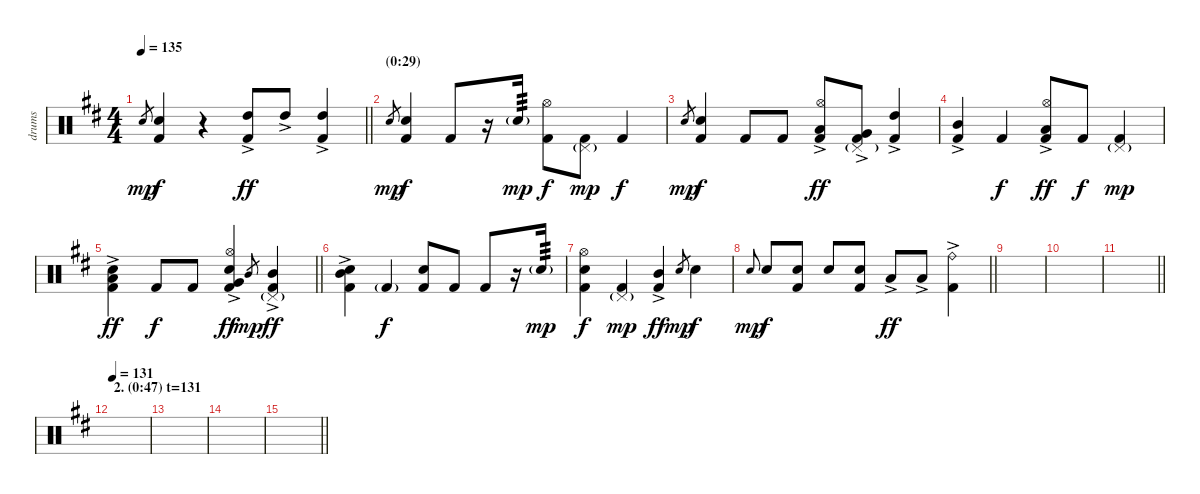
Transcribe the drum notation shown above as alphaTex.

\track ("drums" "drums") {instrument percussion}
\staff {score}
\articulation defaults
\ts (4 4)
\tempo 135
\clef neutral
\barLineRight lightlight
\ks d "Electric Snare (hit)".8{gr dy mp}
("Electric Snare (hit)" "Kick (hit) 2").4{dy f} r.4 ("High Tom (hit)"{ac} "Kick (hit) 2").8{dy ff} "High Tom (hit)"{ac}.8 ("High Tom (hit)"{ac} "Kick (hit) 2").4 |
\section ("" "(0:29)")
"Electric Snare (hit)".8{gr dy mp} ("Electric Snare (hit)" "Kick (hit) 2").4{dy f} "Kick (hit) 2".8 r.16 "Electric Snare (hit)"{g}.16{tp 3 dy mp} ("Hi-Hat (open)" "Kick (hit) 2").8{dy f} ("Pedal Hi-Hat (hit)"{g} "Kick (hit) 2").8{dy mp} "Kick (hit) 2".4{dy f} |
"Electric Snare (hit)".8{gr dy mp} ("Electric Snare (hit)" "Kick (hit) 2").4{dy f} "Kick (hit) 2".8 "Kick (hit) 2".8 ("Hi-Hat (open)" "Low Floor Tom (hit)"{ac} "Kick (hit) 2").8{dy ff} ("Pedal Hi-Hat (hit)"{g} "Very Low Tom (hit)"{ac} "Kick (hit) 2").8 ("High Tom (hit)"{ac} "Kick (hit) 2").4 |
("Mid Tom (hit)"{ac} "Kick (hit) 2").4 "Kick (hit) 2".4{dy f} ("Hi-Hat (open)" "Low Tom (hit)"{ac} "Kick (hit) 2").8{dy ff} "Kick (hit) 2".8{dy f} ("Pedal Hi-Hat (hit)"{g} "Kick (hit) 2").4{dy mp} |
\barLineRight lightlight
("Low Tom (hit)"{ac} "Electric Snare (hit)" "Kick (hit) 2").4{dy ff} "Kick (hit) 2".8{dy f} "Kick (hit) 2".8 ("Hi-Hat (open)" "Very Low Tom (hit)"{ac} "Electric Snare (hit)" "Kick (hit) 2").4{dy ff} "Mid Tom (hit)".8{gr dy mp} ("Pedal Hi-Hat (hit)"{g} "Mid Tom (hit)"{ac} "Kick (hit) 2").4{dy ff} |
("Mid Tom (hit)"{ac} "Electric Snare (hit)" "Kick (hit) 2").4 "Kick (hit) 2"{g}.4{dy f} ("Electric Snare (hit)" "Kick (hit) 2").8 "Kick (hit) 2".8 "Kick (hit) 2".8 r.16 "Electric Snare (hit)"{g}.16{tp 3 dy mp} |
("Hi-Hat (open)" "Electric Snare (hit)" "Kick (hit) 2").4{dy f} ("Pedal Hi-Hat (hit)"{g} "Kick (hit) 2").4{dy mp} ("Mid Tom (hit)"{ac} "Kick (hit) 2").4{dy ff} "Electric Snare (hit)".8{gr dy mp} "Electric Snare (hit)".4{dy f} |
\barLineRight lightlight "Electric Snare (hit)".8{gr onbeat dy mp} "Electric Snare (hit)".8{dy f}
("Electric Snare (hit)" "Kick (hit) 2").8 "Electric Snare (hit)".8 ("Electric Snare (hit)" "Kick (hit) 2").8 "Low Tom (hit)"{ac}.8{dy ff} "Low Tom (hit)"{ac}.8 ("Ride (bell)"{ac} "Kick (hit) 2").4 |
|
|
\barLineRight lightlight
|
\section ("" "2. (0:47) t=131")
\tempo 131
|
|
|
\barLineRight lightlight
